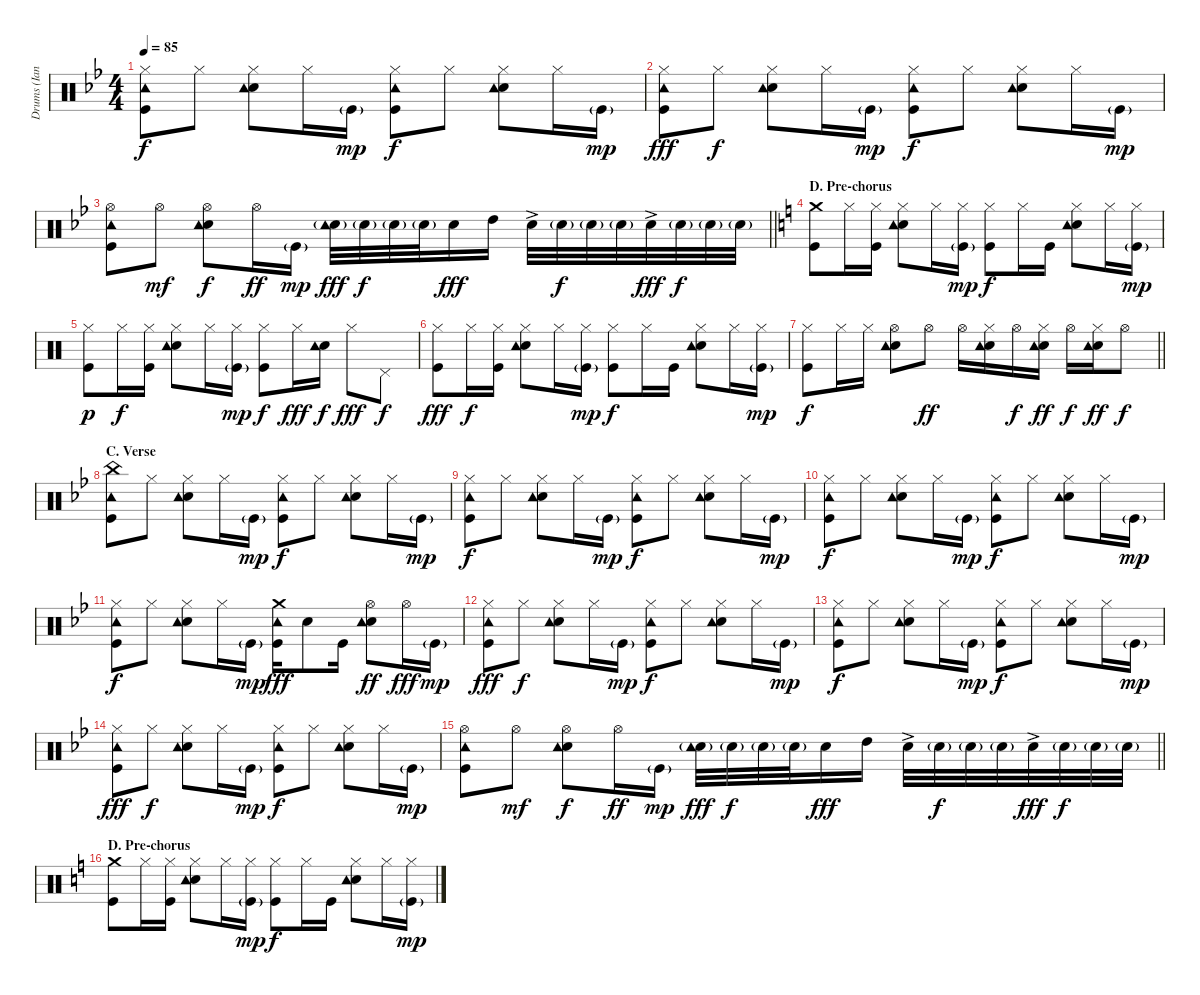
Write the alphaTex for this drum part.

\track ("Drums (Ian Paice)" "Drums (Ian") {instrument percussion}
\staff {score}
\articulation defaults
\ts (4 4)
\tempo 85
\clef neutral
\ks gminor
("Hi-Hat (closed)" "Tambourine (hit)" "Kick (hit)").8{dy f} "Hi-Hat (closed)".8 ("Hi-Hat (closed)" "Electric Snare (hit)" "Tambourine (hit)").8 "Hi-Hat (closed)".16 "Kick (hit)"{g}.16{dy mp} ("Hi-Hat (closed)" "Tambourine (hit)" "Kick (hit)").8{dy f} "Hi-Hat (closed)".8 ("Hi-Hat (closed)" "Electric Snare (hit)" "Tambourine (hit)").8 "Hi-Hat (closed)".16 "Kick (hit)"{g}.16{dy mp} |
("Hi-Hat (closed)" "Tambourine (hit)" "Kick (hit)").8{dy fff} "Hi-Hat (closed)".8{dy f} ("Hi-Hat (closed)" "Electric Snare (hit)" "Tambourine (hit)").8 "Hi-Hat (closed)".16 "Kick (hit)"{g}.16{dy mp} ("Hi-Hat (closed)" "Tambourine (hit)" "Kick (hit)").8{dy f} "Hi-Hat (closed)".8 ("Hi-Hat (closed)" "Electric Snare (hit)" "Tambourine (hit)").8 "Hi-Hat (closed)".16 "Kick (hit)"{g}.16{dy mp} |
\barLineRight lightlight
("Hi-Hat (open)" "Tambourine (hit)" "Kick (hit)").8 "Hi-Hat (open)".8{dy mf} ("Hi-Hat (open)" "Electric Snare (hit)" "Tambourine (hit)").8{dy f} "Hi-Hat (open)".16{dy ff} "Kick (hit)"{g}.16{dy mp} ("Electric Snare (hit)"{g} "Tambourine (hit)").32{dy fff} "Electric Snare (hit)"{g}.32{dy f} "Electric Snare (hit)"{g}.32 "Electric Snare (hit)"{g}.32 "Electric Snare (hit)".16{dy fff} "High Tom (hit)".16 "Electric Snare (hit)"{ac}.32 "Electric Snare (hit)"{g}.32{dy f} "Electric Snare (hit)"{g}.32 "Electric Snare (hit)"{g}.32 "Electric Snare (hit)"{ac}.32{dy fff} "Electric Snare (hit)"{g}.32{dy f} "Electric Snare (hit)"{g}.32 "Electric Snare (hit)"{g}.32 |
\section ("" "D. Pre-chorus")
\ks aminor
("Crash medium (hit)" "Kick (hit)").8 "Hi-Hat (closed)".16 ("Hi-Hat (closed)" "Kick (hit)").16 ("Hi-Hat (closed)" "Electric Snare (hit)" "Tambourine (hit)").8 "Hi-Hat (closed)".16 ("Hi-Hat (closed)" "Kick (hit)"{g}).16{dy mp} ("Hi-Hat (closed)" "Kick (hit)").8{dy f} "Hi-Hat (closed)".16 "Kick (hit)".16 ("Hi-Hat (closed)" "Electric Snare (hit)" "Tambourine (hit)").8 "Hi-Hat (closed)".16 ("Hi-Hat (closed)" "Kick (hit)"{g}).16{dy mp} |
("Hi-Hat (closed)" "Kick (hit)").8{dy p} "Hi-Hat (closed)".16{dy f} ("Hi-Hat (closed)" "Kick (hit)").16 ("Hi-Hat (closed)" "Electric Snare (hit)" "Tambourine (hit)").8 "Hi-Hat (closed)".16 ("Hi-Hat (closed)" "Kick (hit)"{g}).16{dy mp} ("Hi-Hat (closed)" "Kick (hit)").8{dy f} "Hi-Hat (closed)".16{dy fff} ("Electric Snare (hit)" "Tambourine (hit)").16{dy f} "Hi-Hat (closed)".8{dy fff} "Pedal Hi-Hat (hit)".8{dy f} |
("Hi-Hat (closed)" "Kick (hit)").8{dy fff} "Hi-Hat (closed)".16{dy f} ("Hi-Hat (closed)" "Kick (hit)").16 ("Hi-Hat (closed)" "Electric Snare (hit)" "Tambourine (hit)").8 "Hi-Hat (closed)".16 ("Hi-Hat (closed)" "Kick (hit)"{g}).16{dy mp} ("Hi-Hat (closed)" "Kick (hit)").8{dy f} "Hi-Hat (closed)".16 "Kick (hit)".16 ("Hi-Hat (closed)" "Electric Snare (hit)" "Tambourine (hit)").8 "Hi-Hat (closed)".16 ("Hi-Hat (closed)" "Kick (hit)"{g}).16{dy mp} |
\barLineRight lightlight
("Hi-Hat (closed)" "Kick (hit)").8{dy f} "Hi-Hat (closed)".16 "Hi-Hat (closed)".16 ("Hi-Hat (open)" "Electric Snare (hit)" "Tambourine (hit)").8 "Hi-Hat (open)".8{dy ff} "Hi-Hat (open)".16 ("Hi-Hat (closed)" "Electric Snare (hit)" "Tambourine (hit)").16 "Hi-Hat (open)".16{dy f} ("Hi-Hat (closed)" "Electric Snare (hit)" "Tambourine (hit)").16{dy ff} "Hi-Hat (open)".16{dy f} ("Hi-Hat (closed)" "Electric Snare (hit)" "Tambourine (hit)").16{dy ff} "Hi-Hat (open)".8{dy f} |
\section ("" "C. Verse")
\ks gminor
("China (hit)" "Tambourine (hit)" "Kick (hit)").8 "Hi-Hat (closed)".8 ("Hi-Hat (closed)" "Electric Snare (hit)" "Tambourine (hit)").8 "Hi-Hat (closed)".16 "Kick (hit)"{g}.16{dy mp} ("Hi-Hat (closed)" "Tambourine (hit)" "Kick (hit)").8{dy f} "Hi-Hat (closed)".8 ("Hi-Hat (closed)" "Electric Snare (hit)" "Tambourine (hit)").8 "Hi-Hat (closed)".16 "Kick (hit)"{g}.16{dy mp} |
("Hi-Hat (closed)" "Tambourine (hit)" "Kick (hit)").8{dy f} "Hi-Hat (closed)".8 ("Hi-Hat (closed)" "Electric Snare (hit)" "Tambourine (hit)").8 "Hi-Hat (closed)".16 "Kick (hit)"{g}.16{dy mp} ("Hi-Hat (closed)" "Tambourine (hit)" "Kick (hit)").8{dy f} "Hi-Hat (closed)".8 ("Hi-Hat (closed)" "Electric Snare (hit)" "Tambourine (hit)").8 "Hi-Hat (closed)".16 "Kick (hit)"{g}.16{dy mp} |
("Hi-Hat (closed)" "Tambourine (hit)" "Kick (hit)").8{dy f} "Hi-Hat (closed)".8 ("Hi-Hat (closed)" "Electric Snare (hit)" "Tambourine (hit)").8 "Hi-Hat (closed)".16 "Kick (hit)"{g}.16{dy mp} ("Hi-Hat (closed)" "Tambourine (hit)" "Kick (hit)").8{dy f} "Hi-Hat (closed)".8 ("Hi-Hat (closed)" "Electric Snare (hit)" "Tambourine (hit)").8 "Hi-Hat (closed)".16 "Kick (hit)"{g}.16{dy mp} |
("Hi-Hat (closed)" "Tambourine (hit)" "Kick (hit)").8{dy f} "Hi-Hat (closed)".8 ("Hi-Hat (closed)" "Electric Snare (hit)" "Tambourine (hit)").8 "Hi-Hat (closed)".16 "Kick (hit)"{g}.16{dy mp} ("Crash medium (hit)" "Tambourine (hit)" "Kick (hit)").16{dy fff} "Electric Snare (hit)".8 "Kick (hit)".16 ("Hi-Hat (open)" "Electric Snare (hit)" "Tambourine (hit)").8{dy ff} "Hi-Hat (open)".16{dy fff} "Kick (hit)"{g}.16{dy mp} |
("Hi-Hat (closed)" "Tambourine (hit)" "Kick (hit)").8{dy fff} "Hi-Hat (closed)".8{dy f} ("Hi-Hat (closed)" "Electric Snare (hit)" "Tambourine (hit)").8 "Hi-Hat (closed)".16 "Kick (hit)"{g}.16{dy mp} ("Hi-Hat (closed)" "Tambourine (hit)" "Kick (hit)").8{dy f} "Hi-Hat (closed)".8 ("Hi-Hat (closed)" "Electric Snare (hit)" "Tambourine (hit)").8 "Hi-Hat (closed)".16 "Kick (hit)"{g}.16{dy mp} |
("Hi-Hat (closed)" "Tambourine (hit)" "Kick (hit)").8{dy f} "Hi-Hat (closed)".8 ("Hi-Hat (closed)" "Electric Snare (hit)" "Tambourine (hit)").8 "Hi-Hat (closed)".16 "Kick (hit)"{g}.16{dy mp} ("Hi-Hat (closed)" "Tambourine (hit)" "Kick (hit)").8{dy f} "Hi-Hat (closed)".8 ("Hi-Hat (closed)" "Electric Snare (hit)" "Tambourine (hit)").8 "Hi-Hat (closed)".16 "Kick (hit)"{g}.16{dy mp} |
("Hi-Hat (closed)" "Tambourine (hit)" "Kick (hit)").8{dy fff} "Hi-Hat (closed)".8{dy f} ("Hi-Hat (closed)" "Electric Snare (hit)" "Tambourine (hit)").8 "Hi-Hat (closed)".16 "Kick (hit)"{g}.16{dy mp} ("Hi-Hat (closed)" "Tambourine (hit)" "Kick (hit)").8{dy f} "Hi-Hat (closed)".8 ("Hi-Hat (closed)" "Electric Snare (hit)" "Tambourine (hit)").8 "Hi-Hat (closed)".16 "Kick (hit)"{g}.16{dy mp} |
\barLineRight lightlight
("Hi-Hat (open)" "Tambourine (hit)" "Kick (hit)").8 "Hi-Hat (open)".8{dy mf} ("Hi-Hat (open)" "Electric Snare (hit)" "Tambourine (hit)").8{dy f} "Hi-Hat (open)".16{dy ff} "Kick (hit)"{g}.16{dy mp} ("Electric Snare (hit)"{g} "Tambourine (hit)").32{dy fff} "Electric Snare (hit)"{g}.32{dy f} "Electric Snare (hit)"{g}.32 "Electric Snare (hit)"{g}.32 "Electric Snare (hit)".16{dy fff} "High Tom (hit)".16 "Electric Snare (hit)"{ac}.32 "Electric Snare (hit)"{g}.32{dy f} "Electric Snare (hit)"{g}.32 "Electric Snare (hit)"{g}.32 "Electric Snare (hit)"{ac}.32{dy fff} "Electric Snare (hit)"{g}.32{dy f} "Electric Snare (hit)"{g}.32 "Electric Snare (hit)"{g}.32 |
\section ("" "D. Pre-chorus")
\ks aminor
("Crash medium (hit)" "Kick (hit)").8 "Hi-Hat (closed)".16 ("Hi-Hat (closed)" "Kick (hit)").16 ("Hi-Hat (closed)" "Electric Snare (hit)" "Tambourine (hit)").8 "Hi-Hat (closed)".16 ("Hi-Hat (closed)" "Kick (hit)"{g}).16{dy mp} ("Hi-Hat (closed)" "Kick (hit)").8{dy f} "Hi-Hat (closed)".16 "Kick (hit)".16 ("Hi-Hat (closed)" "Electric Snare (hit)" "Tambourine (hit)").8 "Hi-Hat (closed)".16 ("Hi-Hat (closed)" "Kick (hit)"{g}).16{dy mp}
